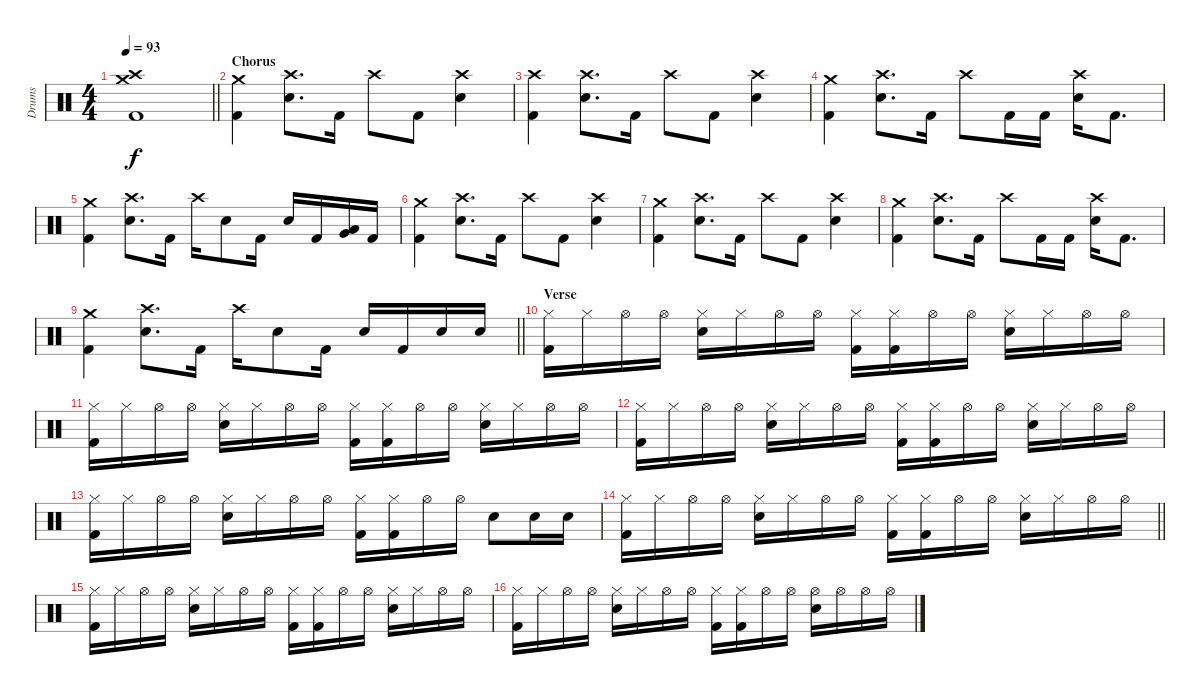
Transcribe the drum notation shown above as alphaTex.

\track ("Drums" "Drums") {instrument percussion}
\staff {score}
\articulation defaults
\ts (4 4)
\tempo 93
\clef neutral
\barLineRight lightlight
\ks c
("Crash medium (hit)" "Crash high (hit)" "Kick (hit) 2").1{dy f} |
\section ("" "Chorus")
("Crash medium (hit)" "Kick (hit) 2").4 ("Crash high (hit)" "Electric Snare (hit)").8{d} "Kick (hit) 2".16 "Crash high (hit)".8 "Kick (hit) 2".8 ("Crash high (hit)" "Electric Snare (hit)").4 |
("Crash high (hit)" "Kick (hit) 2").4 ("Crash high (hit)" "Electric Snare (hit)").8{d} "Kick (hit) 2".16 "Crash high (hit)".8 "Kick (hit) 2".8 ("Crash high (hit)" "Electric Snare (hit)").4 |
("Crash medium (hit)" "Kick (hit) 2").4 ("Crash high (hit)" "Electric Snare (hit)").8{d} "Kick (hit) 2".16 "Crash high (hit)".8 "Kick (hit) 2".16 "Kick (hit) 2".16 ("Crash high (hit)" "Electric Snare (hit)").16 "Kick (hit) 2".8{d} |
("Crash medium (hit)" "Kick (hit) 2").4 ("Crash high (hit)" "Electric Snare (hit)").8{d} "Kick (hit) 2".16 "Crash high (hit)".16 "Electric Snare (hit)".8 "Kick (hit) 2".16 "Electric Snare (hit)".16 "Kick (hit) 2".16 ("Very Low Tom (hit)" "Low Floor Tom (hit)").16 "Kick (hit) 2".16 |
("Crash medium (hit)" "Kick (hit) 2").4 ("Crash high (hit)" "Electric Snare (hit)").8{d} "Kick (hit) 2".16 "Crash high (hit)".8 "Kick (hit) 2".8 ("Crash high (hit)" "Electric Snare (hit)").4 |
("Crash medium (hit)" "Kick (hit) 2").4 ("Crash high (hit)" "Electric Snare (hit)").8{d} "Kick (hit) 2".16 "Crash high (hit)".8 "Kick (hit) 2".8 ("Crash high (hit)" "Electric Snare (hit)").4 |
("Crash medium (hit)" "Kick (hit) 2").4 ("Crash high (hit)" "Electric Snare (hit)").8{d} "Kick (hit) 2".16 "Crash high (hit)".8 "Kick (hit) 2".16 "Kick (hit) 2".16 ("Crash high (hit)" "Electric Snare (hit)").16 "Kick (hit) 2".8{d} |
\barLineRight lightlight
("Crash medium (hit)" "Kick (hit) 2").4 ("Crash high (hit)" "Electric Snare (hit)").8{d} "Kick (hit) 2".16 "Crash high (hit)".16 "Electric Snare (hit)".8 "Kick (hit) 2".16 "Electric Snare (hit)".16 "Kick (hit) 2".16 "Electric Snare (hit)".16 "Electric Snare (hit)".16 |
\section ("" "Verse")
("Hi-Hat (closed)" "Kick (hit) 2").16 "Hi-Hat (closed)".16 "Hi-Hat (open)".16 "Hi-Hat (open)".16 ("Hi-Hat (closed)" "Electric Snare (hit)").16 "Hi-Hat (closed)".16 "Hi-Hat (open)".16 "Hi-Hat (open)".16 ("Hi-Hat (closed)" "Kick (hit) 2").16 ("Hi-Hat (closed)" "Kick (hit) 2").16 "Hi-Hat (open)".16 "Hi-Hat (open)".16 ("Hi-Hat (closed)" "Electric Snare (hit)").16 "Hi-Hat (closed)".16 "Hi-Hat (open)".16 "Hi-Hat (open)".16 |
("Hi-Hat (closed)" "Kick (hit) 2").16 "Hi-Hat (closed)".16 "Hi-Hat (open)".16 "Hi-Hat (open)".16 ("Hi-Hat (closed)" "Electric Snare (hit)").16 "Hi-Hat (closed)".16 "Hi-Hat (open)".16 "Hi-Hat (open)".16 ("Hi-Hat (closed)" "Kick (hit) 2").16 ("Hi-Hat (closed)" "Kick (hit) 2").16 "Hi-Hat (open)".16 "Hi-Hat (open)".16 ("Hi-Hat (closed)" "Electric Snare (hit)").16 "Hi-Hat (closed)".16 "Hi-Hat (open)".16 "Hi-Hat (open)".16 |
("Hi-Hat (closed)" "Kick (hit) 2").16 "Hi-Hat (closed)".16 "Hi-Hat (open)".16 "Hi-Hat (open)".16 ("Hi-Hat (closed)" "Electric Snare (hit)").16 "Hi-Hat (closed)".16 "Hi-Hat (open)".16 "Hi-Hat (open)".16 ("Hi-Hat (closed)" "Kick (hit) 2").16 ("Hi-Hat (closed)" "Kick (hit) 2").16 "Hi-Hat (open)".16 "Hi-Hat (open)".16 ("Hi-Hat (closed)" "Electric Snare (hit)").16 "Hi-Hat (closed)".16 "Hi-Hat (open)".16 "Hi-Hat (open)".16 |
("Hi-Hat (closed)" "Kick (hit) 2").16 "Hi-Hat (closed)".16 "Hi-Hat (open)".16 "Hi-Hat (open)".16 ("Hi-Hat (closed)" "Electric Snare (hit)").16 "Hi-Hat (closed)".16 "Hi-Hat (open)".16 "Hi-Hat (open)".16 ("Hi-Hat (closed)" "Kick (hit) 2").16 ("Hi-Hat (closed)" "Kick (hit) 2").16 "Hi-Hat (open)".16 "Hi-Hat (open)".16 "Electric Snare (hit)".8 "Electric Snare (hit)".16 "Electric Snare (hit)".16 |
\barLineRight lightlight
("Hi-Hat (closed)" "Kick (hit) 2").16 "Hi-Hat (closed)".16 "Hi-Hat (open)".16 "Hi-Hat (open)".16 ("Hi-Hat (closed)" "Electric Snare (hit)").16 "Hi-Hat (closed)".16 "Hi-Hat (open)".16 "Hi-Hat (open)".16 ("Hi-Hat (closed)" "Kick (hit) 2").16 ("Hi-Hat (closed)" "Kick (hit) 2").16 "Hi-Hat (open)".16 "Hi-Hat (open)".16 ("Hi-Hat (closed)" "Electric Snare (hit)").16 "Hi-Hat (closed)".16 "Hi-Hat (open)".16 "Hi-Hat (open)".16 |
("Hi-Hat (closed)" "Kick (hit) 2").16 "Hi-Hat (closed)".16 "Hi-Hat (open)".16 "Hi-Hat (open)".16 ("Hi-Hat (closed)" "Electric Snare (hit)").16 "Hi-Hat (closed)".16 "Hi-Hat (open)".16 "Hi-Hat (open)".16 ("Hi-Hat (closed)" "Kick (hit) 2").16 ("Hi-Hat (closed)" "Kick (hit) 2").16 "Hi-Hat (open)".16 "Hi-Hat (open)".16 ("Hi-Hat (closed)" "Electric Snare (hit)").16 "Hi-Hat (closed)".16 "Hi-Hat (open)".16 "Hi-Hat (open)".16 |
("Hi-Hat (closed)" "Kick (hit) 2").16 "Hi-Hat (closed)".16 "Hi-Hat (open)".16 "Hi-Hat (open)".16 ("Hi-Hat (closed)" "Electric Snare (hit)").16 "Hi-Hat (closed)".16 "Hi-Hat (open)".16 "Hi-Hat (open)".16 ("Hi-Hat (closed)" "Kick (hit) 2").16 ("Hi-Hat (closed)" "Kick (hit) 2").16 "Hi-Hat (open)".16 "Hi-Hat (open)".16 ("Hi-Hat (open)" "Electric Snare (hit)").16 "Hi-Hat (open)".16 "Hi-Hat (open)".16 "Hi-Hat (open)".16
